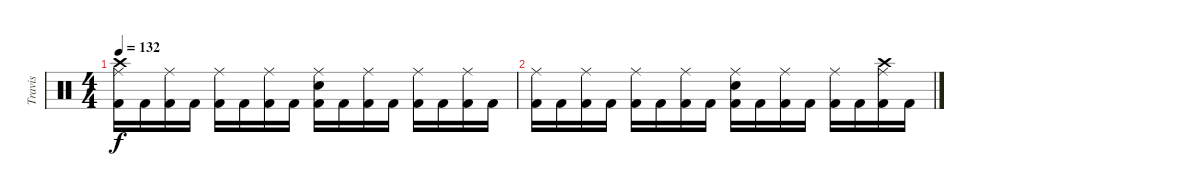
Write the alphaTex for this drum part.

\track ("Travis" "Travis") {instrument percussion}
\staff {score}
\articulation defaults
\ts (4 4)
\tempo 132
\clef neutral
\ks c
("Crash high (hit)" "Ride (middle)" "Kick (hit) 2").16{dy f} "Kick (hit) 2".16 ("Ride (middle)" "Kick (hit) 2").16 "Kick (hit) 2".16 ("Ride (middle)" "Kick (hit) 2").16 "Kick (hit) 2".16 ("Ride (middle)" "Kick (hit) 2").16 "Kick (hit) 2".16 ("Ride (middle)" "Snare (hit) 2" "Kick (hit) 2").16 "Kick (hit) 2".16 ("Ride (middle)" "Kick (hit) 2").16 "Kick (hit) 2".16 ("Ride (middle)" "Kick (hit) 2").16 "Kick (hit) 2".16 ("Ride (middle)" "Kick (hit) 2").16 "Kick (hit) 2".16 |
("Ride (middle)" "Kick (hit) 2").16 "Kick (hit) 2".16 ("Ride (middle)" "Kick (hit) 2").16 "Kick (hit) 2".16 ("Ride (middle)" "Kick (hit) 2").16 "Kick (hit) 2".16 ("Ride (middle)" "Kick (hit) 2").16 "Kick (hit) 2".16 ("Ride (middle)" "Snare (hit) 2" "Kick (hit) 2").16 "Kick (hit) 2".16 ("Ride (middle)" "Kick (hit) 2").16 "Kick (hit) 2".16 ("Ride (middle)" "Kick (hit) 2").16 "Kick (hit) 2".16 ("Crash high (hit)" "Ride (middle)" "Kick (hit) 2").16 "Kick (hit) 2".16
